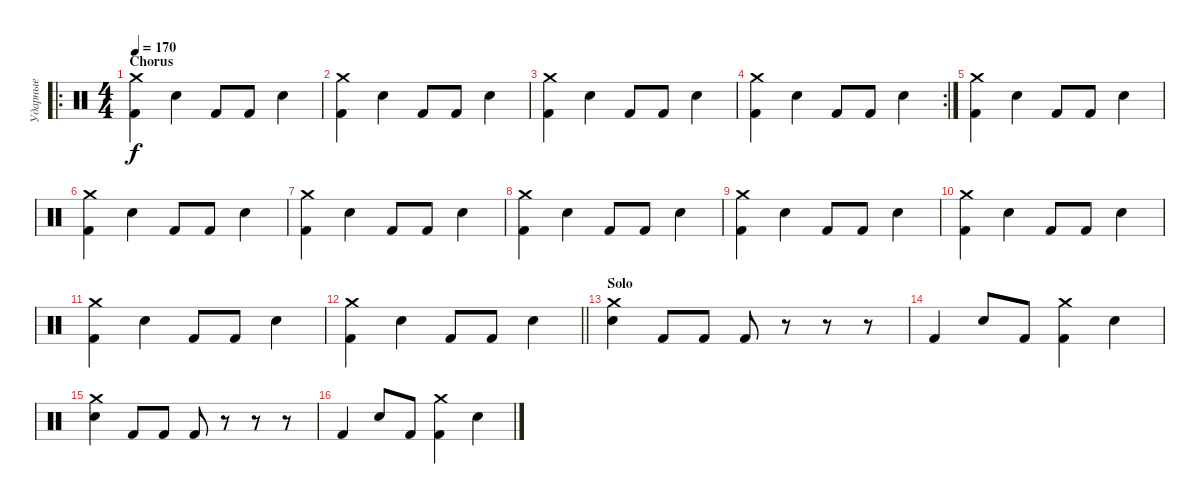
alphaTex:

\track ("Ударные" "Ударные") {instrument percussion}
\staff {score}
\articulation defaults
\ro
\ts (4 4)
\section ("" "Chorus")
\tempo 170
\clef neutral
\ks c
("Kick (hit) 2" "Crash medium (hit)").4{dy f} "Snare (hit) 2".4 "Kick (hit) 2".8 "Kick (hit) 2".8 "Snare (hit) 2".4 |
("Kick (hit) 2" "Crash medium (hit)").4 "Snare (hit) 2".4 "Kick (hit) 2".8 "Kick (hit) 2".8 "Snare (hit) 2".4 |
("Kick (hit) 2" "Crash medium (hit)").4 "Snare (hit) 2".4 "Kick (hit) 2".8 "Kick (hit) 2".8 "Snare (hit) 2".4 |
\rc 2
("Kick (hit) 2" "Crash medium (hit)").4 "Snare (hit) 2".4 "Kick (hit) 2".8 "Kick (hit) 2".8 "Snare (hit) 2".4 |
("Kick (hit) 2" "Crash medium (hit)").4 "Snare (hit) 2".4 "Kick (hit) 2".8 "Kick (hit) 2".8 "Snare (hit) 2".4 |
("Kick (hit) 2" "Crash medium (hit)").4 "Snare (hit) 2".4 "Kick (hit) 2".8 "Kick (hit) 2".8 "Snare (hit) 2".4 |
("Kick (hit) 2" "Crash medium (hit)").4 "Snare (hit) 2".4 "Kick (hit) 2".8 "Kick (hit) 2".8 "Snare (hit) 2".4 |
("Kick (hit) 2" "Crash medium (hit)").4 "Snare (hit) 2".4 "Kick (hit) 2".8 "Kick (hit) 2".8 "Snare (hit) 2".4 |
("Kick (hit) 2" "Crash medium (hit)").4 "Snare (hit) 2".4 "Kick (hit) 2".8 "Kick (hit) 2".8 "Snare (hit) 2".4 |
("Kick (hit) 2" "Crash medium (hit)").4 "Snare (hit) 2".4 "Kick (hit) 2".8 "Kick (hit) 2".8 "Snare (hit) 2".4 |
("Kick (hit) 2" "Crash medium (hit)").4 "Snare (hit) 2".4 "Kick (hit) 2".8 "Kick (hit) 2".8 "Snare (hit) 2".4 |
\barLineRight lightlight
("Kick (hit) 2" "Crash medium (hit)").4 "Snare (hit) 2".4 "Kick (hit) 2".8 "Kick (hit) 2".8 "Snare (hit) 2".4 |
\section ("" "Solo")
("Snare (hit) 2" "Crash medium (hit)").4 "Kick (hit) 2".8 "Kick (hit) 2".8 "Kick (hit) 2".8 r.8 r.8 r.8 |
"Kick (hit) 2".4 "Snare (hit) 2".8 "Kick (hit) 2".8 ("Kick (hit) 2" "Crash medium (hit)").4 "Snare (hit) 2".4 |
("Snare (hit) 2" "Crash medium (hit)").4 "Kick (hit) 2".8 "Kick (hit) 2".8 "Kick (hit) 2".8 r.8 r.8 r.8 |
"Kick (hit) 2".4 "Snare (hit) 2".8 "Kick (hit) 2".8 ("Kick (hit) 2" "Crash medium (hit)").4 "Snare (hit) 2".4
